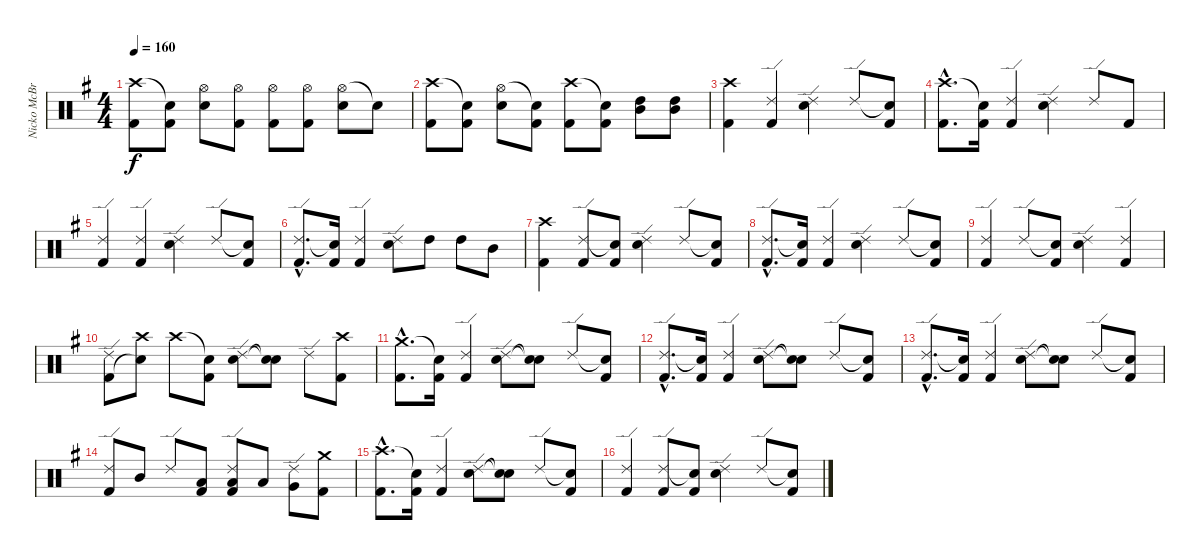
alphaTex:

\track ("Nicko McBrain" "Nicko McBr") {instrument percussion}
\staff {score}
\articulation defaults
\ts (4 4)
\tempo 160
\clef neutral
\ks g
("Crash high (hit)" "Kick (hit) 2").8{dy f} ("Snare (hit)"{t} "Kick (hit) 2").8 ("Hi-Hat (open)" "Electric Snare (hit)").8 ("Hi-Hat (open)" "Kick (hit) 2").8 ("Hi-Hat (open)" "Kick (hit) 2").8 ("Hi-Hat (open)" "Kick (hit) 2").8 ("Hi-Hat (open)" "Electric Snare (hit)").8 "Snare (hit)"{t}.8 |
("Crash high (hit)" "Kick (hit) 2").8 ("Snare (hit)"{t} "Kick (hit) 2").8 ("Hi-Hat (open)" "Electric Snare (hit)").8 ("Snare (hit)"{t} "Kick (hit) 2").8 ("Crash high (hit)" "Kick (hit) 2").8 ("Snare (hit)"{t} "Kick (hit) 2").8 ("Mid Tom (hit)" "High Tom (hit)").8 ("Mid Tom (hit)" "High Tom (hit)").8 |
("Kick (hit) 2" "Crash high (hit)").4 ("Ride (edge) 2" "Kick (hit) 2").4 ("Ride (edge) 2" "Electric Snare (hit)").4 "Ride (edge) 2".8 ("Snare (hit)"{t} "Kick (hit) 2").8 |
("Crash high (hit)"{hac} "Kick (hit) 2"{hac}).8{d} ("Snare (hit)"{t} "Kick (hit) 2").16 ("Ride (edge) 2" "Kick (hit) 2").4 ("Ride (edge) 2" "Electric Snare (hit)").4 "Ride (edge) 2".8 "Kick (hit) 2".8 |
("Ride (edge) 2" "Kick (hit) 2").4 ("Ride (edge) 2" "Kick (hit) 2").4 ("Ride (edge) 2" "Electric Snare (hit)").4 "Ride (edge) 2".8 ("Snare (hit)"{t} "Kick (hit) 2").8 |
("Ride (edge) 2"{hac} "Kick (hit) 2"{hac}).8{d} ("Snare (hit)"{t} "Kick (hit) 2").16 ("Ride (edge) 2" "Kick (hit) 2").4 ("Ride (edge) 2" "Electric Snare (hit)").8 "High Tom (hit)".8 "High Tom (hit)".8 "Mid Tom (hit)".8 |
("Crash high (hit)" "Kick (hit) 2").4 ("Ride (edge) 2" "Kick (hit) 2").8 ("Snare (hit)"{t} "Kick (hit) 2").8 ("Ride (edge) 2" "Electric Snare (hit)").4 "Ride (edge) 2".8 ("Snare (hit)"{t} "Kick (hit) 2").8 |
("Ride (edge) 2"{hac} "Kick (hit) 2"{hac}).8{d} ("Snare (hit)"{t} "Kick (hit) 2").16 ("Ride (edge) 2" "Kick (hit) 2").4 ("Ride (edge) 2" "Electric Snare (hit)").4 "Ride (edge) 2".8 ("Snare (hit)"{t} "Kick (hit) 2").8 |
("Ride (edge) 2" "Kick (hit) 2").4 "Ride (edge) 2".8 ("Snare (hit)"{t} "Kick (hit) 2").8 ("Ride (edge) 2" "Electric Snare (hit)").4 ("Ride (edge) 2" "Kick (hit) 2").4 |
("Ride (edge) 2" "Kick (hit) 2").8 ("Crash high (hit)" "Snare (hit)"{t}).8 "Crash high (hit)".8 ("Snare (hit)"{t} "Kick (hit) 2").8 ("Ride (edge) 2" "Electric Snare (hit)").8 ("Snare (hit)"{t} "Snare (hit)"{t}).8 "Ride (edge) 2".8 ("Crash high (hit)" "Kick (hit) 2").8 |
("Crash medium (hit)"{hac} "Kick (hit) 2"{hac}).8{d} ("Snare (hit)"{t} "Kick (hit) 2").16 ("Ride (edge) 2" "Kick (hit) 2").4 ("Ride (edge) 2" "Electric Snare (hit)").8 ("Snare (hit)"{t} "Snare (hit)"{t}).8 "Ride (edge) 2".8 ("Snare (hit)"{t} "Kick (hit) 2").8 |
("Ride (edge) 2"{hac} "Kick (hit) 2"{hac}).8{d} ("Snare (hit)"{t} "Kick (hit) 2").16 ("Ride (edge) 2" "Kick (hit) 2").4 ("Ride (edge) 2" "Electric Snare (hit)").8 ("Snare (hit)"{t} "Snare (hit)"{t}).8 "Ride (edge) 2".8 ("Snare (hit)"{t} "Kick (hit) 2").8 |
("Ride (edge) 2"{hac} "Kick (hit) 2"{hac}).8{d} ("Snare (hit)"{t} "Kick (hit) 2").16 ("Ride (edge) 2" "Kick (hit) 2").4 ("Ride (edge) 2" "Electric Snare (hit)").8 ("Snare (hit)"{t} "Snare (hit)"{t}).8 "Ride (edge) 2".8 ("Snare (hit)"{t} "Kick (hit) 2").8 |
("Ride (edge) 2" "Kick (hit) 2").8 "Mid Tom (hit)".8 "Ride (edge) 2".8 ("Low Tom (hit)" "Kick (hit) 2").8 ("Ride (edge) 2" "Low Tom (hit)" "Kick (hit) 2").8 "Low Tom (hit)".8 ("Ride (edge) 2" "Very Low Tom (hit)").8 ("Crash medium (hit)" "Kick (hit) 2").8 |
("Crash high (hit)"{hac} "Kick (hit) 2"{hac}).8{d} ("Snare (hit)"{t} "Kick (hit) 2").16 ("Ride (edge) 2" "Kick (hit) 2").4 ("Ride (edge) 2" "Electric Snare (hit)").8 ("Snare (hit)"{t} "Snare (hit)"{t}).8 "Ride (edge) 2".8 ("Snare (hit)"{t} "Kick (hit) 2").8 |
("Ride (edge) 2" "Kick (hit) 2").4 ("Ride (edge) 2" "Kick (hit) 2").8 ("Snare (hit)"{t} "Kick (hit) 2").8 ("Ride (edge) 2" "Electric Snare (hit)").4 "Ride (edge) 2".8 ("Snare (hit)"{t} "Kick (hit) 2").8
